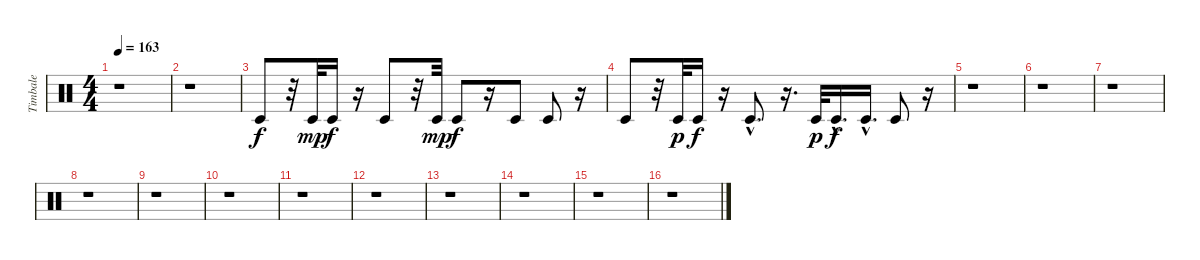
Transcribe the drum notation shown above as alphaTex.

\track ("Timbale" "Timbale") {instrument percussion}
\staff {score}
\articulation defaults
\ts (4 4)
\tempo 163
\clef neutral
\ks c
r.1{dy f} |
r.1 |
"Timbale low (hit)".8 r.32 "Timbale low (hit)".32{dy mp} "Timbale low (hit)".16{dy f} r.16 "Timbale low (hit)".8 r.32 "Timbale low (hit)".32{dy mp} "Timbale low (hit)".8{dy f} r.16 "Timbale low (hit)".8 "Timbale low (hit)".8 r.16 |
"Timbale low (hit)".8 r.32 "Timbale low (hit)".32{dy p} "Timbale low (hit)".16{dy f} r.16 "Timbale low (hit)"{hac}.8{d} r.16{d} "Timbale low (hit)".32{dy p} "Timbale low (hit)"{hac}.16{d dy f} "Timbale low (hit)"{hac}.16{d} "Timbale low (hit)".8 r.16 |
r.1 |
r.1 |
r.1 |
r.1 |
r.1 |
r.1 |
r.1 |
r.1 |
r.1 |
r.1 |
r.1 |
r.1
